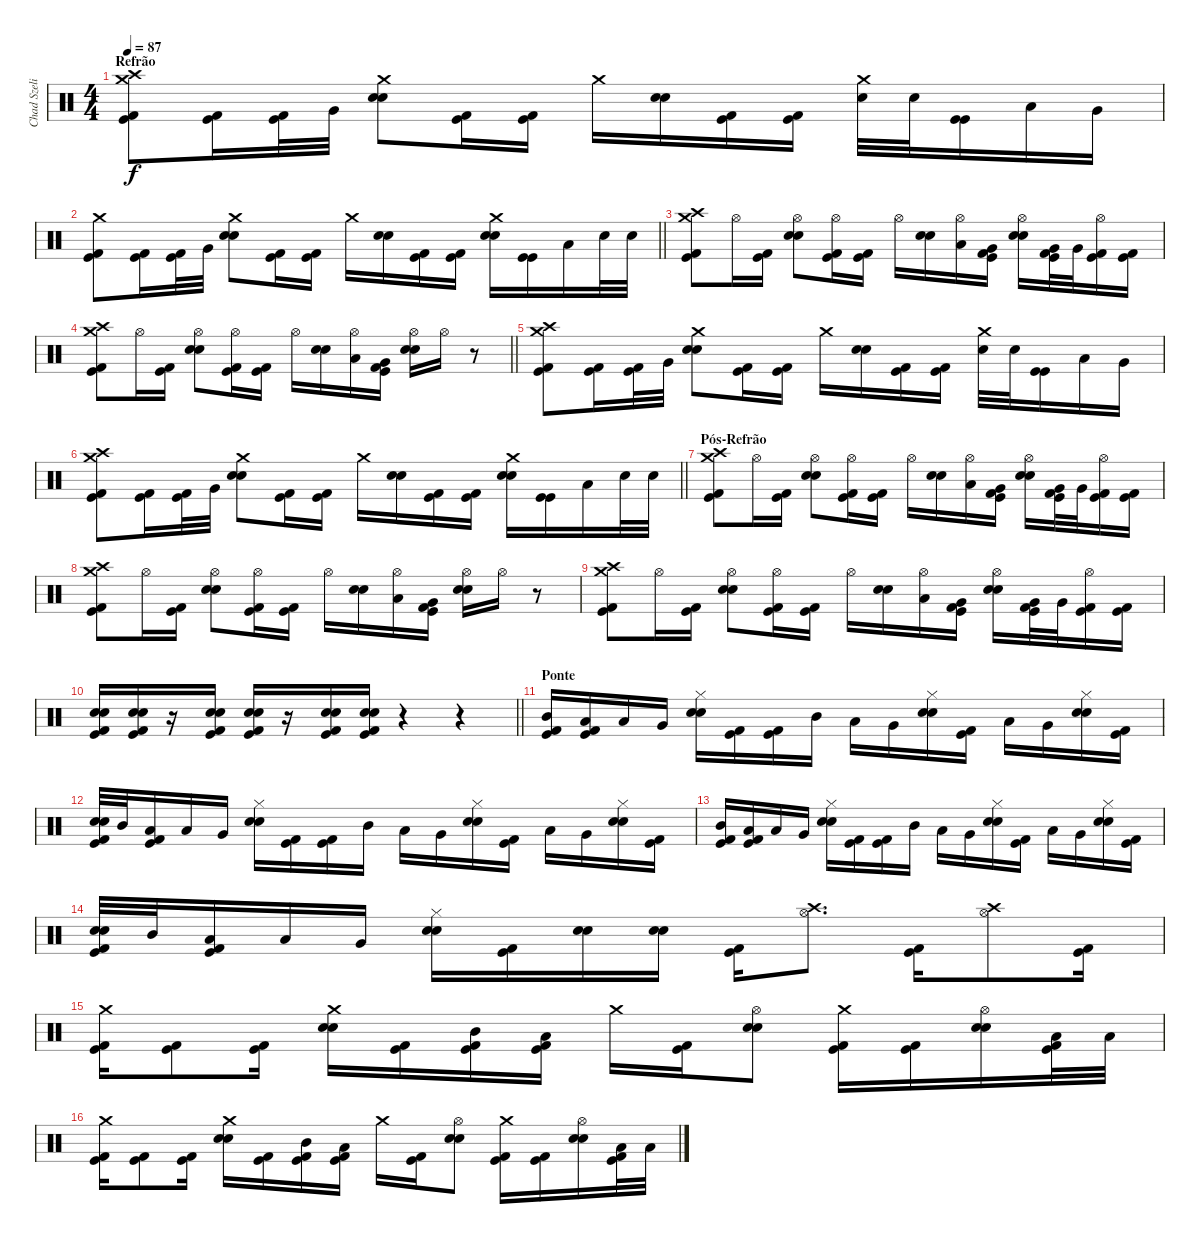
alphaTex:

\track ("Chad Szeliga" "Chad Szeli") {instrument percussion}
\staff {score}
\articulation defaults
\ts (4 4)
\section ("" "Refrão")
\tempo 87
\clef neutral
\ks c
("Crash high (hit)" "Kick (hit) 2" "Kick (hit)" "Crash medium (hit)").8{dy f} ("Kick (hit) 2" "Kick (hit)").16 ("Kick (hit) 2" "Kick (hit)").32 "Very Low Tom (hit)".32 ("Crash medium (hit)" "Snare (hit) 2" "Snare (hit) 2").8 ("Kick (hit) 2" "Kick (hit)").16 ("Kick (hit) 2" "Kick (hit)").16 "Crash medium (hit)".16 ("Snare (hit) 2" "Snare (hit) 2").16 ("Kick (hit) 2" "Kick (hit)").16 ("Kick (hit) 2" "Kick (hit)").16 ("Crash medium (hit)" "Snare (hit) 2").32 "Snare (hit) 2".32 ("Kick (hit)" "Kick (hit)").16 "Low Tom (hit)".16 "Very Low Tom (hit)".16 |
\barLineRight lightlight
("Crash medium (hit)" "Kick (hit) 2" "Kick (hit)").8 ("Kick (hit) 2" "Kick (hit)").16 ("Kick (hit) 2" "Kick (hit)").32 "Very Low Tom (hit)".32 ("Crash medium (hit)" "Snare (hit) 2" "Snare (hit) 2").8 ("Kick (hit) 2" "Kick (hit)").16 ("Kick (hit) 2" "Kick (hit)").16 "Crash medium (hit)".16 ("Snare (hit) 2" "Snare (hit) 2").16 ("Kick (hit) 2" "Kick (hit)").16 ("Kick (hit) 2" "Kick (hit)").16 ("Crash medium (hit)" "Snare (hit) 2" "Snare (hit) 2").16 ("Kick (hit)" "Kick (hit)").16 "Low Tom (hit)".16 "Snare (hit) 2".32 "Snare (hit) 2".32 |
("Crash high (hit)" "Kick (hit) 2" "Kick (hit)" "Crash medium (hit)").8 "Hi-Hat (open)".16 ("Kick (hit) 2" "Kick (hit)").16 ("Snare (hit) 2" "Snare (hit) 2" "Hi-Hat (open)").8 ("Kick (hit) 2" "Kick (hit)" "Hi-Hat (open)").16 ("Kick (hit) 2" "Kick (hit)").16 "Hi-Hat (open)".16 ("Snare (hit) 2" "Snare (hit) 2").16 ("Low Tom (hit)" "Hi-Hat (open)").16 ("Kick (hit) 2" "Kick (hit)" "Very Low Tom (hit)").16 ("Snare (hit) 2" "Snare (hit) 2" "Hi-Hat (open)").16 ("Kick (hit) 2" "Kick (hit)" "Very Low Tom (hit)").32 "Very Low Tom (hit)".32 ("Kick (hit) 2" "Kick (hit)" "Hi-Hat (open)").16 ("Kick (hit) 2" "Kick (hit)").16 |
\barLineRight lightlight
("Crash high (hit)" "Kick (hit) 2" "Kick (hit)" "Crash medium (hit)").8 "Hi-Hat (open)".16 ("Kick (hit) 2" "Kick (hit)").16 ("Snare (hit) 2" "Snare (hit) 2" "Hi-Hat (open)").8 ("Kick (hit) 2" "Kick (hit)" "Hi-Hat (open)").16 ("Kick (hit) 2" "Kick (hit)").16 "Hi-Hat (open)".16 ("Snare (hit) 2" "Snare (hit) 2").16 ("Low Tom (hit)" "Hi-Hat (open)").16 ("Kick (hit) 2" "Kick (hit)" "Very Low Tom (hit)").16 ("Snare (hit) 2" "Snare (hit) 2" "Hi-Hat (open)").16 "Hi-Hat (open)".16 r.8 |
("Crash high (hit)" "Kick (hit) 2" "Kick (hit)" "Crash medium (hit)").8 ("Kick (hit) 2" "Kick (hit)").16 ("Kick (hit) 2" "Kick (hit)").32 "Very Low Tom (hit)".32 ("Crash medium (hit)" "Snare (hit) 2" "Snare (hit) 2").8 ("Kick (hit) 2" "Kick (hit)").16 ("Kick (hit) 2" "Kick (hit)").16 "Crash medium (hit)".16 ("Snare (hit) 2" "Snare (hit) 2").16 ("Kick (hit) 2" "Kick (hit)").16 ("Kick (hit) 2" "Kick (hit)").16 ("Crash medium (hit)" "Snare (hit) 2").32 "Snare (hit) 2".32 ("Kick (hit)" "Kick (hit)").16 "Low Tom (hit)".16 "Very Low Tom (hit)".16 |
\barLineRight lightlight
("Crash high (hit)" "Kick (hit) 2" "Kick (hit)" "Crash medium (hit)").8 ("Kick (hit) 2" "Kick (hit)").16 ("Kick (hit) 2" "Kick (hit)").32 "Very Low Tom (hit)".32 ("Crash medium (hit)" "Snare (hit) 2" "Snare (hit) 2").8 ("Kick (hit) 2" "Kick (hit)").16 ("Kick (hit) 2" "Kick (hit)").16 "Crash medium (hit)".16 ("Snare (hit) 2" "Snare (hit) 2").16 ("Kick (hit) 2" "Kick (hit)").16 ("Kick (hit) 2" "Kick (hit)").16 ("Crash medium (hit)" "Snare (hit) 2" "Snare (hit) 2").16 ("Kick (hit)" "Kick (hit)").16 "Low Tom (hit)".16 "Snare (hit) 2".32 "Snare (hit) 2".32 |
\section ("" "Pós-Refrão")
("Crash high (hit)" "Kick (hit) 2" "Kick (hit)" "Crash medium (hit)").8 "Hi-Hat (open)".16 ("Kick (hit) 2" "Kick (hit)").16 ("Snare (hit) 2" "Snare (hit) 2" "Hi-Hat (open)").8 ("Kick (hit) 2" "Kick (hit)" "Hi-Hat (open)").16 ("Kick (hit) 2" "Kick (hit)").16 "Hi-Hat (open)".16 ("Snare (hit) 2" "Snare (hit) 2").16 ("Low Tom (hit)" "Hi-Hat (open)").16 ("Kick (hit) 2" "Kick (hit)" "Very Low Tom (hit)").16 ("Snare (hit) 2" "Snare (hit) 2" "Hi-Hat (open)").16 ("Kick (hit) 2" "Kick (hit)" "Very Low Tom (hit)").32 "Very Low Tom (hit)".32 ("Kick (hit) 2" "Kick (hit)" "Hi-Hat (open)").16 ("Kick (hit) 2" "Kick (hit)").16 |
("Crash high (hit)" "Kick (hit) 2" "Kick (hit)" "Crash medium (hit)").8 "Hi-Hat (open)".16 ("Kick (hit) 2" "Kick (hit)").16 ("Snare (hit) 2" "Snare (hit) 2" "Hi-Hat (open)").8 ("Kick (hit) 2" "Kick (hit)" "Hi-Hat (open)").16 ("Kick (hit) 2" "Kick (hit)").16 "Hi-Hat (open)".16 ("Snare (hit) 2" "Snare (hit) 2").16 ("Low Tom (hit)" "Hi-Hat (open)").16 ("Kick (hit) 2" "Kick (hit)" "Very Low Tom (hit)").16 ("Snare (hit) 2" "Snare (hit) 2" "Hi-Hat (open)").16 "Hi-Hat (open)".16 r.8 |
("Crash high (hit)" "Kick (hit) 2" "Kick (hit)" "Crash medium (hit)").8 "Hi-Hat (open)".16 ("Kick (hit) 2" "Kick (hit)").16 ("Snare (hit) 2" "Snare (hit) 2" "Hi-Hat (open)").8 ("Kick (hit) 2" "Kick (hit)" "Hi-Hat (open)").16 ("Kick (hit) 2" "Kick (hit)").16 "Hi-Hat (open)".16 ("Snare (hit) 2" "Snare (hit) 2").16 ("Low Tom (hit)" "Hi-Hat (open)").16 ("Kick (hit) 2" "Kick (hit)" "Very Low Tom (hit)").16 ("Snare (hit) 2" "Snare (hit) 2" "Hi-Hat (open)").16 ("Kick (hit) 2" "Kick (hit)" "Very Low Tom (hit)").32 "Very Low Tom (hit)".32 ("Kick (hit) 2" "Kick (hit)" "Hi-Hat (open)").16 ("Kick (hit) 2" "Kick (hit)").16 |
\barLineRight lightlight
("Kick (hit) 2" "Kick (hit)" "Snare (hit) 2" "Snare (hit) 2").16 ("Kick (hit) 2" "Kick (hit)" "Snare (hit) 2" "Snare (hit) 2").16 r.16 ("Kick (hit) 2" "Kick (hit)" "Snare (hit) 2" "Snare (hit) 2").16 ("Kick (hit) 2" "Kick (hit)" "Snare (hit) 2" "Snare (hit) 2").16 r.16 ("Kick (hit) 2" "Kick (hit)" "Snare (hit) 2" "Snare (hit) 2").16 ("Kick (hit) 2" "Kick (hit)" "Snare (hit) 2" "Snare (hit) 2").16 r.4 r.4 |
\section ("" "Ponte")
("Kick (hit) 2" "Kick (hit)" "Mid Tom (hit)").16 ("Kick (hit) 2" "Kick (hit)" "Low Tom (hit)").16 "Low Tom (hit)".16 "Very Low Tom (hit)".16 ("Snare (hit) 2" "Snare (hit) 2" "Hi-Hat (closed)").16 ("Kick (hit) 2" "Kick (hit)").16 ("Kick (hit) 2" "Kick (hit)").16 "Mid Tom (hit)".16 "Low Tom (hit)".16 "Very Low Tom (hit)".16 ("Snare (hit) 2" "Snare (hit) 2" "Hi-Hat (closed)").16 ("Kick (hit) 2" "Kick (hit)").16 "Low Tom (hit)".16 "Very Low Tom (hit)".16 ("Snare (hit) 2" "Snare (hit) 2" "Hi-Hat (closed)").16 ("Kick (hit) 2" "Kick (hit)").16 |
("Kick (hit) 2" "Kick (hit)" "Snare (hit) 2" "Snare (hit) 2").32 "Mid Tom (hit)".32 ("Kick (hit) 2" "Kick (hit)" "Low Tom (hit)").16 "Low Tom (hit)".16 "Very Low Tom (hit)".16 ("Snare (hit) 2" "Snare (hit) 2" "Hi-Hat (closed)").16 ("Kick (hit) 2" "Kick (hit)").16 ("Kick (hit) 2" "Kick (hit)").16 "Mid Tom (hit)".16 "Low Tom (hit)".16 "Very Low Tom (hit)".16 ("Snare (hit) 2" "Snare (hit) 2" "Hi-Hat (closed)").16 ("Kick (hit) 2" "Kick (hit)").16 "Low Tom (hit)".16 "Very Low Tom (hit)".16 ("Snare (hit) 2" "Snare (hit) 2" "Hi-Hat (closed)").16 ("Kick (hit) 2" "Kick (hit)").16 |
("Kick (hit) 2" "Kick (hit)" "Mid Tom (hit)").16 ("Kick (hit) 2" "Kick (hit)" "Low Tom (hit)").16 "Low Tom (hit)".16 "Very Low Tom (hit)".16 ("Snare (hit) 2" "Snare (hit) 2" "Hi-Hat (closed)").16 ("Kick (hit) 2" "Kick (hit)").16 ("Kick (hit) 2" "Kick (hit)").16 "Mid Tom (hit)".16 "Low Tom (hit)".16 "Very Low Tom (hit)".16 ("Snare (hit) 2" "Snare (hit) 2" "Hi-Hat (closed)").16 ("Kick (hit) 2" "Kick (hit)").16 "Low Tom (hit)".16 "Very Low Tom (hit)".16 ("Snare (hit) 2" "Snare (hit) 2" "Hi-Hat (closed)").16 ("Kick (hit) 2" "Kick (hit)").16 |
("Kick (hit) 2" "Kick (hit)" "Snare (hit) 2" "Snare (hit) 2").32 "Mid Tom (hit)".32 ("Kick (hit) 2" "Kick (hit)" "Low Tom (hit)").16 "Low Tom (hit)".16 "Very Low Tom (hit)".16 ("Snare (hit) 2" "Snare (hit) 2" "Hi-Hat (closed)").16 ("Kick (hit) 2" "Kick (hit)").16 ("Snare (hit) 2" "Snare (hit) 2").16 ("Snare (hit) 2" "Snare (hit) 2").16 ("Kick (hit) 2" "Kick (hit)").16 ("Crash high (hit)" "Hi-Hat (open)").8{d} ("Kick (hit) 2" "Kick (hit)").16 ("Crash high (hit)" "Hi-Hat (open)").8 ("Kick (hit) 2" "Kick (hit)").16 |
("Crash medium (hit)" "Kick (hit) 2" "Kick (hit)").16 ("Kick (hit) 2" "Kick (hit)").8 ("Kick (hit) 2" "Kick (hit)").16 ("Crash medium (hit)" "Snare (hit) 2" "Snare (hit) 2").16 ("Kick (hit) 2" "Kick (hit)").16 ("Kick (hit) 2" "Kick (hit)" "Mid Tom (hit)").16 ("Kick (hit) 2" "Kick (hit)" "Low Tom (hit)").16 "Crash medium (hit)".16 ("Kick (hit) 2" "Kick (hit)").16 ("Snare (hit) 2" "Snare (hit) 2" "Hi-Hat (open)").8 ("Crash medium (hit)" "Kick (hit) 2" "Kick (hit)").16 ("Kick (hit) 2" "Kick (hit)").16 ("Snare (hit) 2" "Snare (hit) 2" "Hi-Hat (open)").16 ("Kick (hit) 2" "Kick (hit)" "Low Tom (hit)").32 "Low Tom (hit)".32 |
("Crash medium (hit)" "Kick (hit) 2" "Kick (hit)").16 ("Kick (hit) 2" "Kick (hit)").8 ("Kick (hit) 2" "Kick (hit)").16 ("Crash medium (hit)" "Snare (hit) 2" "Snare (hit) 2").16 ("Kick (hit) 2" "Kick (hit)").16 ("Kick (hit) 2" "Kick (hit)" "Mid Tom (hit)").16 ("Kick (hit) 2" "Kick (hit)" "Low Tom (hit)").16 "Crash medium (hit)".16 ("Kick (hit) 2" "Kick (hit)").16 ("Snare (hit) 2" "Snare (hit) 2" "Hi-Hat (open)").8 ("Crash medium (hit)" "Kick (hit) 2" "Kick (hit)").16 ("Kick (hit) 2" "Kick (hit)").16 ("Snare (hit) 2" "Snare (hit) 2" "Hi-Hat (open)").16 ("Kick (hit) 2" "Kick (hit)" "Low Tom (hit)").32 "Low Tom (hit)".32
